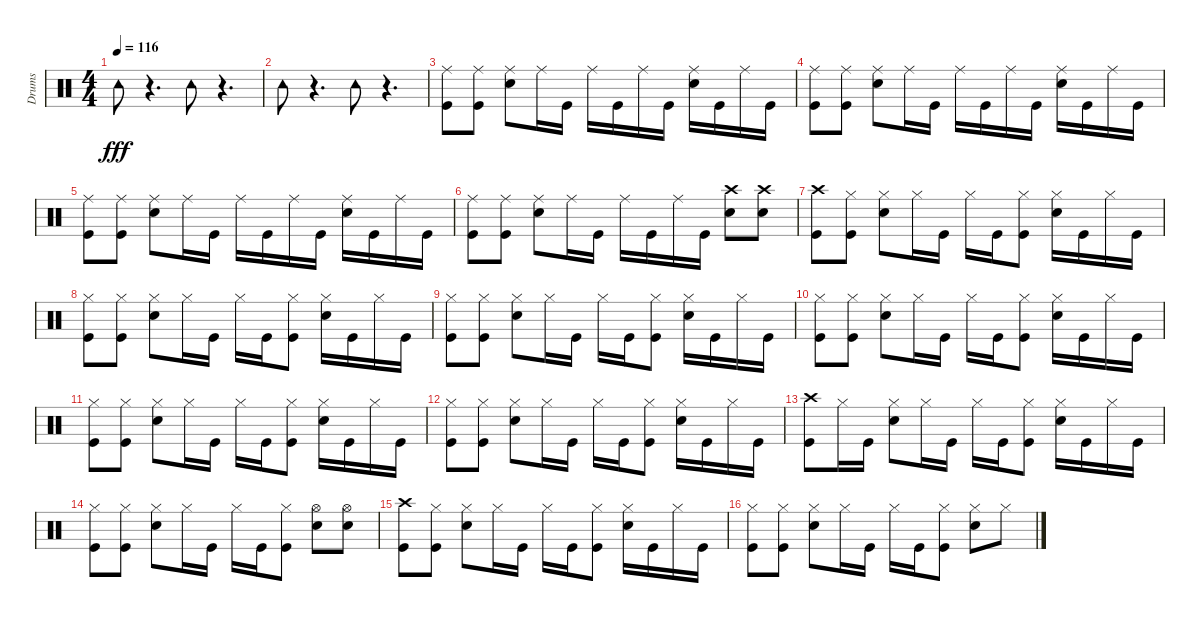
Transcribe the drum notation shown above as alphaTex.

\track ("Drums" "Drums") {instrument percussion}
\staff {score}
\articulation defaults
\ts (4 4)
\tempo 116
\clef neutral
\ks c "Tambourine (hit)".8{dy fff}
r.4{d} "Tambourine (hit)".8 r.4{d} |
"Tambourine (hit)".8 r.4{d} "Tambourine (hit)".8 r.4{d} |
("Ride (middle)" "Kick (hit)").8 ("Ride (middle)" "Kick (hit)").8 ("Ride (middle)" "Snare (hit) 2").8 "Ride (middle)".16 "Kick (hit)".16 "Ride (middle)".16 "Kick (hit)".16 "Ride (middle)".16 "Kick (hit)".16 ("Snare (hit) 2" "Ride (middle)").16 "Kick (hit)".16 "Ride (middle)".16 "Kick (hit)".16 |
("Ride (middle)" "Kick (hit)").8 ("Ride (middle)" "Kick (hit)").8 ("Ride (middle)" "Snare (hit) 2").8 "Ride (middle)".16 "Kick (hit)".16 "Ride (middle)".16 "Kick (hit)".16 "Ride (middle)".16 "Kick (hit)".16 ("Ride (middle)" "Snare (hit) 2").16 "Kick (hit)".16 "Ride (middle)".16 "Kick (hit)".16 |
("Ride (middle)" "Kick (hit)").8 ("Kick (hit)" "Ride (middle)").8 ("Snare (hit) 2" "Ride (middle)").8 "Ride (middle)".16 "Kick (hit)".16 "Ride (middle)".16 "Kick (hit)".16 "Ride (middle)".16 "Kick (hit)".16 ("Ride (middle)" "Snare (hit) 2").16 "Kick (hit)".16 "Ride (middle)".16 "Kick (hit)".16 |
("Kick (hit)" "Ride (middle)").8 ("Ride (middle)" "Kick (hit)").8 ("Snare (hit) 2" "Ride (middle)").8 "Ride (middle)".16 "Kick (hit)".16 "Ride (middle)".16 "Kick (hit)".16 "Ride (middle)".16 "Kick (hit)".16 ("Snare (hit) 2" "Crash high (hit)").8 ("Crash high (hit)" "Snare (hit) 2").8 |
("Crash high (hit)" "Kick (hit)").8 ("Hi-Hat (closed)" "Kick (hit)").8 ("Hi-Hat (closed)" "Snare (hit) 2").8 "Hi-Hat (closed)".16 "Kick (hit)".16 "Hi-Hat (closed)".16 "Kick (hit)".16 ("Hi-Hat (closed)" "Kick (hit)").8 ("Hi-Hat (closed)" "Snare (hit) 2").16 "Kick (hit)".16 "Hi-Hat (closed)".16 "Kick (hit)".16 |
("Kick (hit)" "Hi-Hat (closed)").8 ("Hi-Hat (closed)" "Kick (hit)").8 ("Hi-Hat (closed)" "Snare (hit) 2").8 "Hi-Hat (closed)".16 "Kick (hit)".16 "Hi-Hat (closed)".16 "Kick (hit)".16 ("Hi-Hat (closed)" "Kick (hit)").8 ("Snare (hit) 2" "Hi-Hat (closed)").16 "Kick (hit)".16 "Hi-Hat (closed)".16 "Kick (hit)".16 |
("Hi-Hat (closed)" "Kick (hit)").8 ("Kick (hit)" "Hi-Hat (closed)").8 ("Snare (hit) 2" "Hi-Hat (closed)").8 "Hi-Hat (closed)".16 "Kick (hit)".16 "Hi-Hat (closed)".16 "Kick (hit)".16 ("Hi-Hat (closed)" "Kick (hit)").8 ("Hi-Hat (closed)" "Snare (hit) 2").16 "Kick (hit)".16 "Hi-Hat (closed)".16 "Kick (hit)".16 |
("Kick (hit)" "Hi-Hat (closed)").8 ("Kick (hit)" "Hi-Hat (closed)").8 ("Snare (hit) 2" "Hi-Hat (closed)").8 "Hi-Hat (closed)".16 "Kick (hit)".16 "Hi-Hat (closed)".16 "Kick (hit)".16 ("Kick (hit)" "Hi-Hat (closed)").8 ("Hi-Hat (closed)" "Snare (hit) 2").16 "Kick (hit)".16 "Hi-Hat (closed)".16 "Kick (hit)".16 |
("Kick (hit)" "Hi-Hat (closed)").8 ("Hi-Hat (closed)" "Kick (hit)").8 ("Hi-Hat (closed)" "Snare (hit) 2").8 "Hi-Hat (closed)".16 "Kick (hit)".16 "Hi-Hat (closed)".16 "Kick (hit)".16 ("Hi-Hat (closed)" "Kick (hit)").8 ("Snare (hit) 2" "Hi-Hat (closed)").16 "Kick (hit)".16 "Hi-Hat (closed)".16 "Kick (hit)".16 |
("Hi-Hat (closed)" "Kick (hit)").8 ("Hi-Hat (closed)" "Kick (hit)").8 ("Snare (hit) 2" "Hi-Hat (closed)").8 "Hi-Hat (closed)".16 "Kick (hit)".16 "Hi-Hat (closed)".16 "Kick (hit)".16 ("Kick (hit)" "Hi-Hat (closed)").8 ("Hi-Hat (closed)" "Snare (hit) 2").16 "Kick (hit)".16 "Hi-Hat (closed)".16 "Kick (hit)".16 |
("Kick (hit)" "Crash high (hit)").8 "Hi-Hat (closed)".16 "Kick (hit)".16 ("Snare (hit) 2" "Hi-Hat (closed)").8 "Hi-Hat (closed)".16 "Kick (hit)".16 "Hi-Hat (closed)".16 "Kick (hit)".16 ("Kick (hit)" "Hi-Hat (closed)").8 ("Hi-Hat (closed)" "Snare (hit) 2").16 "Kick (hit)".16 "Hi-Hat (closed)".16 "Kick (hit)".16 |
("Kick (hit)" "Hi-Hat (closed)").8 ("Hi-Hat (closed)" "Kick (hit)").8 ("Snare (hit) 2" "Hi-Hat (closed)").8 "Hi-Hat (closed)".16 "Kick (hit)".16 "Hi-Hat (closed)".16 "Kick (hit)".16 ("Hi-Hat (closed)" "Kick (hit)").8 ("Snare (hit) 2" "Hi-Hat (open)").8 ("Hi-Hat (open)" "Snare (hit) 2").8 |
("Crash high (hit)" "Kick (hit)").8 ("Hi-Hat (closed)" "Kick (hit)").8 ("Hi-Hat (closed)" "Snare (hit) 2").8 "Hi-Hat (closed)".16 "Kick (hit)".16 "Hi-Hat (closed)".16 "Kick (hit)".16 ("Hi-Hat (closed)" "Kick (hit)").8 ("Hi-Hat (closed)" "Snare (hit) 2").16 "Kick (hit)".16 "Hi-Hat (closed)".16 "Kick (hit)".16 |
("Hi-Hat (closed)" "Kick (hit)").8 ("Hi-Hat (closed)" "Kick (hit)").8 ("Snare (hit) 2" "Hi-Hat (closed)").8 "Hi-Hat (closed)".16 "Kick (hit)".16 "Hi-Hat (closed)".16 "Kick (hit)".16 ("Hi-Hat (closed)" "Kick (hit)").8 ("Hi-Hat (closed)" "Snare (hit) 2").8 "Hi-Hat (closed)".8
